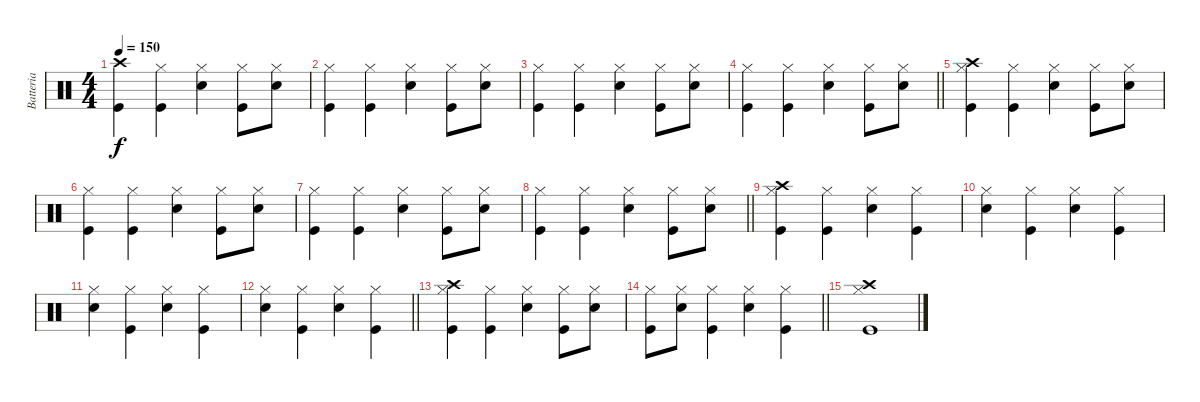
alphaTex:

\track ("Batteria" "Batteria") {instrument percussion}
\staff {score}
\articulation defaults
\ts (4 4)
\tempo 150
\clef neutral
\ks c
("Crash high (hit)" "Kick (hit)").4{dy f} ("Hi-Hat (closed)" "Kick (hit)").4 ("Hi-Hat (closed)" "Snare (hit) 2").4 ("Hi-Hat (closed)" "Kick (hit)").8 ("Hi-Hat (closed)" "Snare (hit) 2").8 |
("Hi-Hat (closed)" "Kick (hit)").4 ("Hi-Hat (closed)" "Kick (hit)").4 ("Hi-Hat (closed)" "Snare (hit) 2").4 ("Hi-Hat (closed)" "Kick (hit)").8 ("Hi-Hat (closed)" "Snare (hit) 2").8 |
("Hi-Hat (closed)" "Kick (hit)").4 ("Hi-Hat (closed)" "Kick (hit)").4 ("Hi-Hat (closed)" "Snare (hit) 2").4 ("Hi-Hat (closed)" "Kick (hit)").8 ("Hi-Hat (closed)" "Snare (hit) 2").8 |
\barLineRight lightlight
("Hi-Hat (closed)" "Kick (hit)").4 ("Hi-Hat (closed)" "Kick (hit)").4 ("Hi-Hat (closed)" "Snare (hit) 2").4 ("Hi-Hat (closed)" "Kick (hit)").8 ("Hi-Hat (closed)" "Snare (hit) 2").8 |
("Hi-Hat (closed)" "Crash high (hit)" "Kick (hit)").4 ("Hi-Hat (closed)" "Kick (hit)").4 ("Hi-Hat (closed)" "Snare (hit) 2").4 ("Hi-Hat (closed)" "Kick (hit)").8 ("Hi-Hat (closed)" "Snare (hit) 2").8 |
("Hi-Hat (closed)" "Kick (hit)").4 ("Hi-Hat (closed)" "Kick (hit)").4 ("Hi-Hat (closed)" "Snare (hit) 2").4 ("Hi-Hat (closed)" "Kick (hit)").8 ("Hi-Hat (closed)" "Snare (hit) 2").8 |
("Hi-Hat (closed)" "Kick (hit)").4 ("Hi-Hat (closed)" "Kick (hit)").4 ("Hi-Hat (closed)" "Snare (hit) 2").4 ("Hi-Hat (closed)" "Kick (hit)").8 ("Hi-Hat (closed)" "Snare (hit) 2").8 |
\barLineRight lightlight
("Hi-Hat (closed)" "Kick (hit)").4 ("Hi-Hat (closed)" "Kick (hit)").4 ("Hi-Hat (closed)" "Snare (hit) 2").4 ("Hi-Hat (closed)" "Kick (hit)").8 ("Hi-Hat (closed)" "Snare (hit) 2").8 |
("Hi-Hat (closed)" "Crash high (hit)" "Kick (hit)").4 ("Hi-Hat (closed)" "Kick (hit)").4 ("Hi-Hat (closed)" "Snare (hit) 2").4 ("Hi-Hat (closed)" "Kick (hit)").4 |
("Hi-Hat (closed)" "Snare (hit) 2").4 ("Hi-Hat (closed)" "Kick (hit)").4 ("Hi-Hat (closed)" "Snare (hit) 2").4 ("Hi-Hat (closed)" "Kick (hit)").4 |
("Hi-Hat (closed)" "Snare (hit) 2").4 ("Hi-Hat (closed)" "Kick (hit)").4 ("Hi-Hat (closed)" "Snare (hit) 2").4 ("Hi-Hat (closed)" "Kick (hit)").4 |
\barLineRight lightlight
("Hi-Hat (closed)" "Snare (hit) 2").4 ("Hi-Hat (closed)" "Kick (hit)").4 ("Hi-Hat (closed)" "Snare (hit) 2").4 ("Hi-Hat (closed)" "Kick (hit)").4 |
("Hi-Hat (closed)" "Crash high (hit)" "Kick (hit)").4 ("Hi-Hat (closed)" "Kick (hit)").4 ("Hi-Hat (closed)" "Snare (hit) 2").4 ("Hi-Hat (closed)" "Kick (hit)").8 ("Hi-Hat (closed)" "Snare (hit) 2").8 |
\barLineRight lightlight
("Hi-Hat (closed)" "Kick (hit)").8 ("Hi-Hat (closed)" "Snare (hit) 2").8 ("Hi-Hat (closed)" "Kick (hit)").4 ("Hi-Hat (closed)" "Snare (hit) 2").4 ("Hi-Hat (closed)" "Kick (hit)").4 |
("Hi-Hat (closed)" "Crash high (hit)" "Kick (hit)").1
